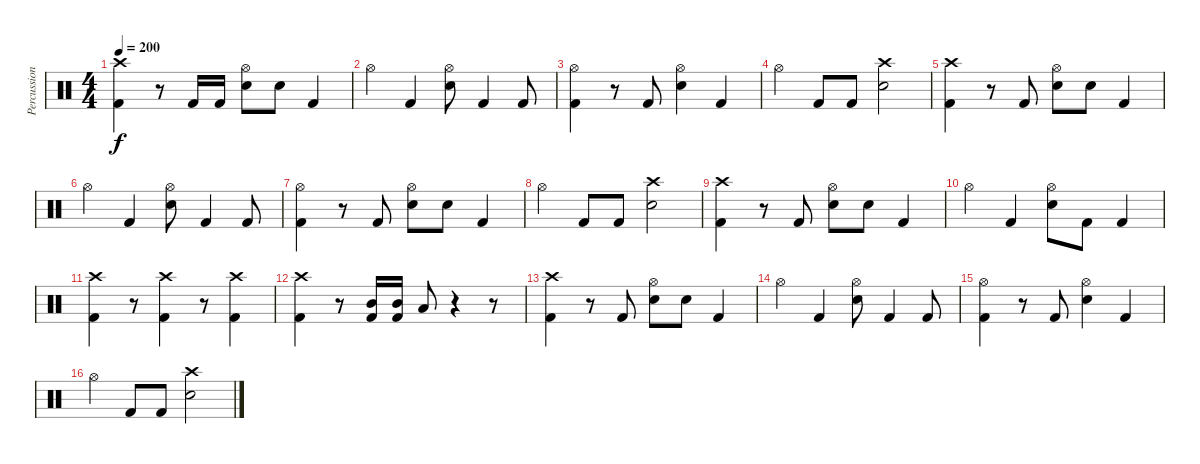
\track ("Percussion" "Percussion") {instrument percussion}
\staff {score}
\articulation defaults
\ts (4 4)
\tempo 200
\clef neutral
\ks c
("Crash high (hit)" "Kick (hit) 2").4{dy f} r.8 "Kick (hit) 2".16 "Kick (hit) 2".16 ("Hi-Hat (open)" "Snare (hit) 2").8 "Snare (hit) 2".8 "Kick (hit) 2".4 |
"Hi-Hat (open)".4 "Kick (hit) 2".4 ("Hi-Hat (open)" "Snare (hit) 2").8 "Kick (hit) 2".4 "Kick (hit) 2".8 |
("Hi-Hat (open)" "Kick (hit) 2").4 r.8 "Kick (hit) 2".8 ("Hi-Hat (open)" "Snare (hit) 2").4 "Kick (hit) 2".4 |
"Hi-Hat (open)".4 "Kick (hit) 2".8 "Kick (hit) 2".8 ("Crash high (hit)" "Snare (hit) 2").2 |
("Crash high (hit)" "Kick (hit) 2").4 r.8 "Kick (hit) 2".8 ("Hi-Hat (open)" "Snare (hit) 2").8 "Snare (hit) 2".8 "Kick (hit) 2".4 |
"Hi-Hat (open)".4 "Kick (hit) 2".4 ("Hi-Hat (open)" "Snare (hit) 2").8 "Kick (hit) 2".4 "Kick (hit) 2".8 |
("Hi-Hat (open)" "Kick (hit) 2").4 r.8 "Kick (hit) 2".8 ("Hi-Hat (open)" "Snare (hit) 2").8 "Snare (hit) 2".8 "Kick (hit) 2".4 |
"Hi-Hat (open)".4 "Kick (hit) 2".8 "Kick (hit) 2".8 ("Crash high (hit)" "Snare (hit) 2").2 |
("Crash high (hit)" "Kick (hit) 2").4 r.8 "Kick (hit) 2".8 ("Hi-Hat (open)" "Snare (hit) 2").8 "Snare (hit) 2".8 "Kick (hit) 2".4 |
"Hi-Hat (open)".4 "Kick (hit) 2".4 ("Hi-Hat (open)" "Snare (hit) 2").8 "Kick (hit) 2".8 "Kick (hit) 2".4 |
("Crash high (hit)" "Kick (hit) 2").4 r.8 ("Crash high (hit)" "Kick (hit) 2").4 r.8 ("Crash high (hit)" "Kick (hit) 2").4 |
("Crash high (hit)" "Kick (hit) 2").4 r.8 ("Mid Tom (hit)" "Kick (hit) 2").16 ("Mid Tom (hit)" "Kick (hit) 2").16 "Low Tom (hit)".8 r.4 r.8 |
("Crash high (hit)" "Kick (hit) 2").4 r.8 "Kick (hit) 2".8 ("Hi-Hat (open)" "Snare (hit) 2").8 "Snare (hit) 2".8 "Kick (hit) 2".4 |
"Hi-Hat (open)".4 "Kick (hit) 2".4 ("Hi-Hat (open)" "Snare (hit) 2").8 "Kick (hit) 2".4 "Kick (hit) 2".8 |
("Hi-Hat (open)" "Kick (hit) 2").4 r.8 "Kick (hit) 2".8 ("Hi-Hat (open)" "Snare (hit) 2").4 "Kick (hit) 2".4 |
"Hi-Hat (open)".4 "Kick (hit) 2".8 "Kick (hit) 2".8 ("Crash high (hit)" "Snare (hit) 2").2
